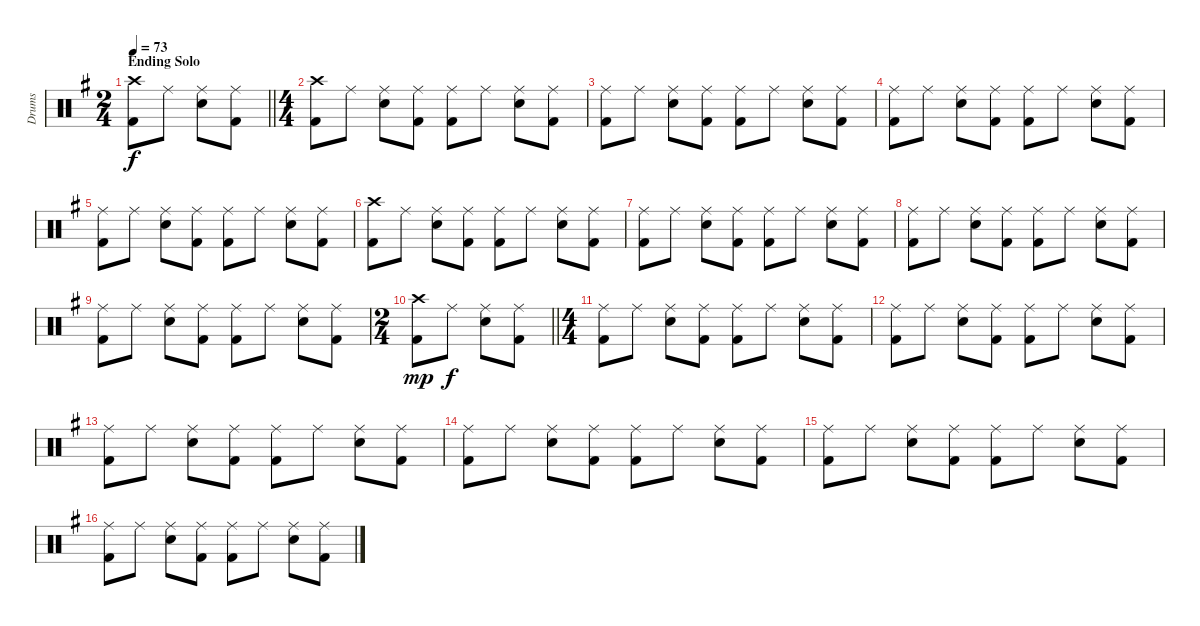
\track ("Drums" "Drums") {instrument percussion}
\staff {score}
\articulation defaults
\ts (2 4)
\section ("" "Ending Solo")
\tempo 73
\clef neutral
\barLineRight lightlight
\ks eminor
("Crash high (hit)" "Kick (hit) 2").8{dy f} "Ride (middle)".8 ("Ride (middle)" "Electric Snare (hit)").8 ("Ride (middle)" "Kick (hit) 2").8 |
\ts (4 4)
("Crash high (hit)" "Kick (hit) 2").8 "Ride (middle)".8 ("Ride (middle)" "Electric Snare (hit)").8 ("Ride (middle)" "Kick (hit) 2").8 ("Ride (middle)" "Kick (hit) 2").8 "Ride (middle)".8 ("Ride (middle)" "Electric Snare (hit)").8 ("Ride (middle)" "Kick (hit) 2").8 |
("Ride (middle)" "Kick (hit) 2").8 "Ride (middle)".8 ("Ride (middle)" "Electric Snare (hit)").8 ("Ride (middle)" "Kick (hit) 2").8 ("Ride (middle)" "Kick (hit) 2").8 "Ride (middle)".8 ("Ride (middle)" "Electric Snare (hit)").8 ("Ride (middle)" "Kick (hit) 2").8 |
("Ride (middle)" "Kick (hit) 2").8 "Ride (middle)".8 ("Ride (middle)" "Electric Snare (hit)").8 ("Ride (middle)" "Kick (hit) 2").8 ("Ride (middle)" "Kick (hit) 2").8 "Ride (middle)".8 ("Ride (middle)" "Electric Snare (hit)").8 ("Ride (middle)" "Kick (hit) 2").8 |
("Ride (middle)" "Kick (hit) 2").8 "Ride (middle)".8 ("Ride (middle)" "Electric Snare (hit)").8 ("Ride (middle)" "Kick (hit) 2").8 ("Ride (middle)" "Kick (hit) 2").8 "Ride (middle)".8 ("Ride (middle)" "Electric Snare (hit)").8 ("Ride (middle)" "Kick (hit) 2").8 |
("Crash high (hit)" "Kick (hit) 2").8 "Ride (middle)".8 ("Ride (middle)" "Electric Snare (hit)").8 ("Ride (middle)" "Kick (hit) 2").8 ("Ride (middle)" "Kick (hit) 2").8 "Ride (middle)".8 ("Ride (middle)" "Electric Snare (hit)").8 ("Ride (middle)" "Kick (hit) 2").8 |
("Ride (middle)" "Kick (hit) 2").8 "Ride (middle)".8 ("Ride (middle)" "Electric Snare (hit)").8 ("Ride (middle)" "Kick (hit) 2").8 ("Ride (middle)" "Kick (hit) 2").8 "Ride (middle)".8 ("Ride (middle)" "Electric Snare (hit)").8 ("Ride (middle)" "Kick (hit) 2").8 |
("Ride (middle)" "Kick (hit) 2").8 "Ride (middle)".8 ("Ride (middle)" "Electric Snare (hit)").8 ("Ride (middle)" "Kick (hit) 2").8 ("Ride (middle)" "Kick (hit) 2").8 "Ride (middle)".8 ("Ride (middle)" "Electric Snare (hit)").8 ("Ride (middle)" "Kick (hit) 2").8 |
("Ride (middle)" "Kick (hit) 2").8 "Ride (middle)".8 ("Ride (middle)" "Electric Snare (hit)").8 ("Ride (middle)" "Kick (hit) 2").8 ("Ride (middle)" "Kick (hit) 2").8 "Ride (middle)".8 ("Ride (middle)" "Electric Snare (hit)").8 ("Ride (middle)" "Kick (hit) 2").8 |
\ts (2 4)
\barLineRight lightlight
("Crash high (hit)" "Kick (hit) 2").8{dy mp} "Ride (middle)".8{dy f} ("Ride (middle)" "Electric Snare (hit)").8 ("Ride (middle)" "Kick (hit) 2").8 |
\ts (4 4)
("Ride (middle)" "Kick (hit) 2").8 "Ride (middle)".8 ("Ride (middle)" "Electric Snare (hit)").8 ("Ride (middle)" "Kick (hit) 2").8 ("Ride (middle)" "Kick (hit) 2").8 "Ride (middle)".8 ("Ride (middle)" "Electric Snare (hit)").8 ("Ride (middle)" "Kick (hit) 2").8 |
("Ride (middle)" "Kick (hit) 2").8 "Ride (middle)".8 ("Ride (middle)" "Electric Snare (hit)").8 ("Ride (middle)" "Kick (hit) 2").8 ("Ride (middle)" "Kick (hit) 2").8 "Ride (middle)".8 ("Ride (middle)" "Electric Snare (hit)").8 ("Ride (middle)" "Kick (hit) 2").8 |
("Ride (middle)" "Kick (hit) 2").8 "Ride (middle)".8 ("Ride (middle)" "Electric Snare (hit)").8 ("Ride (middle)" "Kick (hit) 2").8 ("Ride (middle)" "Kick (hit) 2").8 "Ride (middle)".8 ("Ride (middle)" "Electric Snare (hit)").8 ("Ride (middle)" "Kick (hit) 2").8 |
("Ride (middle)" "Kick (hit) 2").8 "Ride (middle)".8 ("Ride (middle)" "Electric Snare (hit)").8 ("Ride (middle)" "Kick (hit) 2").8 ("Ride (middle)" "Kick (hit) 2").8 "Ride (middle)".8 ("Ride (middle)" "Electric Snare (hit)").8 ("Ride (middle)" "Kick (hit) 2").8 |
("Ride (middle)" "Kick (hit) 2").8 "Ride (middle)".8 ("Ride (middle)" "Electric Snare (hit)").8 ("Ride (middle)" "Kick (hit) 2").8 ("Ride (middle)" "Kick (hit) 2").8 "Ride (middle)".8 ("Ride (middle)" "Electric Snare (hit)").8 ("Ride (middle)" "Kick (hit) 2").8 |
("Ride (middle)" "Kick (hit) 2").8 "Ride (middle)".8 ("Ride (middle)" "Electric Snare (hit)").8 ("Ride (middle)" "Kick (hit) 2").8 ("Ride (middle)" "Kick (hit) 2").8 "Ride (middle)".8 ("Ride (middle)" "Electric Snare (hit)").8 ("Ride (middle)" "Kick (hit) 2").8
